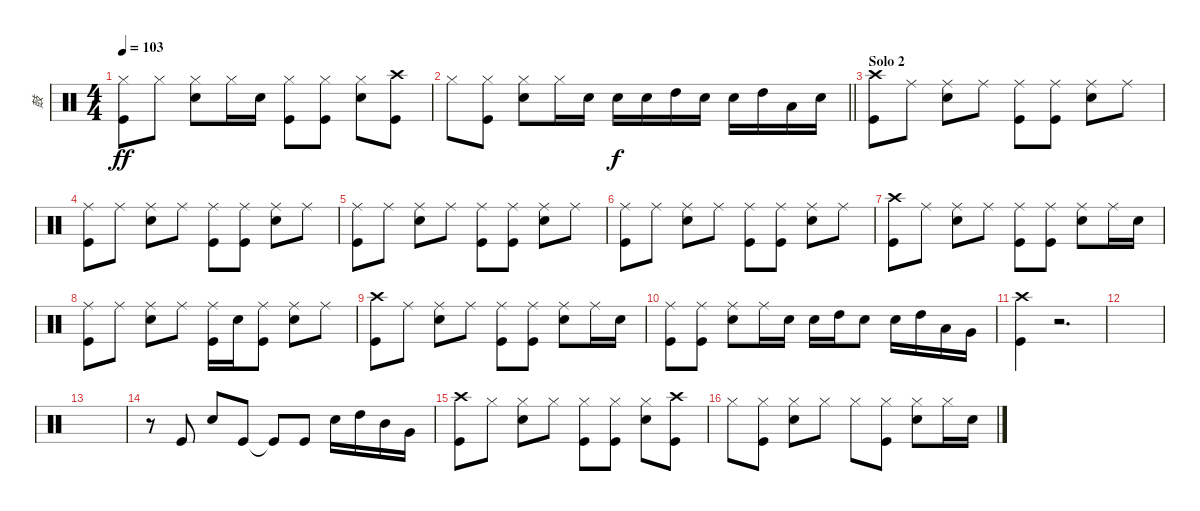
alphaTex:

\track ("鼓" "鼓") {instrument percussion}
\staff {score}
\articulation defaults
\ts (4 4)
\tempo 103
\clef neutral
\ks c
("Hi-Hat (closed)" "Kick (hit)").8{dy ff} "Hi-Hat (closed)".8 ("Hi-Hat (closed)" "Snare (hit) 2").8 "Hi-Hat (closed)".16 "Snare (hit) 2".16 ("Hi-Hat (closed)" "Kick (hit)").8 ("Hi-Hat (closed)" "Kick (hit)").8 ("Hi-Hat (closed)" "Snare (hit) 2").8 ("Crash high (hit)" "Kick (hit)").8 |
\barLineRight lightlight "Hi-Hat (closed)".8
("Hi-Hat (closed)" "Kick (hit)").8 ("Hi-Hat (closed)" "Snare (hit) 2").8 "Hi-Hat (closed)".16 "Snare (hit) 2".16 "Snare (hit) 2".16{dy f} "Snare (hit) 2".16 "High Tom (hit)".16 "Snare (hit) 2".16 "Snare (hit) 2".16 "High Tom (hit)".16 "Low Tom (hit)".16 "Snare (hit) 2".16 |
\section ("" "Solo 2")
("Crash high (hit)" "Kick (hit)").8 "Ride (middle)".8 ("Ride (middle)" "Snare (hit) 2").8 "Ride (middle)".8 ("Ride (middle)" "Kick (hit)").8 ("Ride (middle)" "Kick (hit)").8 ("Ride (middle)" "Snare (hit) 2").8 "Ride (middle)".8 |
("Ride (middle)" "Kick (hit)").8 "Ride (middle)".8 ("Ride (middle)" "Snare (hit) 2").8 "Ride (middle)".8 ("Ride (middle)" "Kick (hit)").8 ("Ride (middle)" "Kick (hit)").8 ("Ride (middle)" "Snare (hit) 2").8 "Ride (middle)".8 |
("Ride (middle)" "Kick (hit)").8 "Ride (middle)".8 ("Ride (middle)" "Snare (hit) 2").8 "Ride (middle)".8 ("Ride (middle)" "Kick (hit)").8 ("Ride (middle)" "Kick (hit)").8 ("Ride (middle)" "Snare (hit) 2").8 "Ride (middle)".8 |
("Ride (middle)" "Kick (hit)").8 "Ride (middle)".8 ("Ride (middle)" "Snare (hit) 2").8 "Ride (middle)".8 ("Ride (middle)" "Kick (hit)").8 ("Ride (middle)" "Kick (hit)").8 ("Ride (middle)" "Snare (hit) 2").8 "Ride (middle)".8 |
("Crash high (hit)" "Kick (hit)").8 "Ride (middle)".8 ("Ride (middle)" "Snare (hit) 2").8 "Ride (middle)".8 ("Ride (middle)" "Kick (hit)").8 ("Ride (middle)" "Kick (hit)").8 ("Ride (middle)" "Snare (hit) 2").8 "Ride (middle)".16 "Snare (hit) 2".16 |
("Ride (middle)" "Kick (hit)").8 "Ride (middle)".8 ("Ride (middle)" "Snare (hit) 2").8 "Ride (middle)".8 ("Ride (middle)" "Kick (hit)").16 "Snare (hit) 2".16 ("Ride (middle)" "Kick (hit)").8 ("Ride (middle)" "Snare (hit) 2").8 "Ride (middle)".8 |
("Crash high (hit)" "Kick (hit)").8 "Ride (middle)".8 ("Ride (middle)" "Snare (hit) 2").8 "Ride (middle)".8 ("Ride (middle)" "Kick (hit)").8 ("Ride (middle)" "Kick (hit)").8 ("Ride (middle)" "Snare (hit) 2").8 "Ride (middle)".16 "Snare (hit) 2".16 |
("Ride (middle)" "Kick (hit)").8 ("Ride (middle)" "Kick (hit)").8 ("Ride (middle)" "Snare (hit) 2").8 "Ride (middle)".16 "Snare (hit) 2".16 "Snare (hit) 2".16 "High Tom (hit)".16 "Snare (hit) 2".8 "Snare (hit) 2".16 "High Tom (hit)".16 "Low Tom (hit)".16 "Very Low Tom (hit)".16 |
("Crash high (hit)" "Kick (hit)").4 r.2{d} |
|
|
r.8 "Kick (hit)".8 "Snare (hit) 2".8 "Kick (hit)".8 "Kick (hit)"{t}.8 "Kick (hit)".8 "Snare (hit) 2".16 "High Tom (hit)".16 "Mid Tom (hit)".16 "Very Low Tom (hit)".16 |
("Crash high (hit)" "Kick (hit)").8 "Hi-Hat (closed)".8 ("Hi-Hat (closed)" "Snare (hit) 2").8 "Hi-Hat (closed)".8 ("Hi-Hat (closed)" "Kick (hit)").8 ("Hi-Hat (closed)" "Kick (hit)").8 ("Hi-Hat (closed)" "Snare (hit) 2").8 ("Crash high (hit)" "Kick (hit)").8 |
"Hi-Hat (closed)".8 ("Hi-Hat (closed)" "Kick (hit)").8 ("Hi-Hat (closed)" "Snare (hit) 2").8 "Hi-Hat (closed)".8 "Hi-Hat (closed)".8 ("Hi-Hat (closed)" "Kick (hit)").8 ("Hi-Hat (closed)" "Snare (hit) 2").8 "Hi-Hat (closed)".16 "Snare (hit) 2".16
